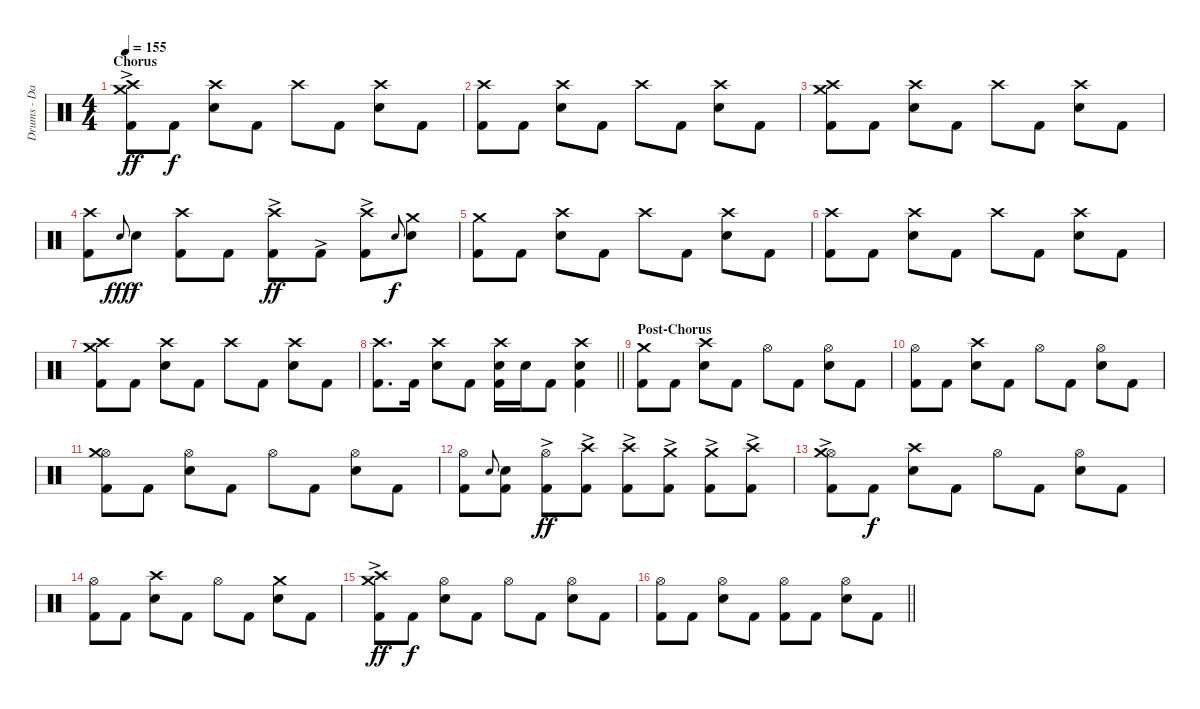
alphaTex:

\track ("Drums - Daniel Adair" "Drums - Da") {instrument percussion bank 1}
\staff {score}
\articulation defaults
\ts (4 4)
\section ("" "Chorus")
\tempo 155
\clef neutral
\ks c
("Crash high (hit)" "Crash medium (hit)"{ac} "Kick (hit) 2").8{dy ff} "Kick (hit) 2".8{dy f} ("Crash high (hit)" "Snare (hit) 2").8 "Kick (hit) 2".8 "Crash high (hit)".8 "Kick (hit) 2".8 ("Crash high (hit)" "Snare (hit) 2").8 "Kick (hit) 2".8 |
("Crash high (hit)" "Kick (hit) 2").8 "Kick (hit) 2".8 ("Crash high (hit)" "Snare (hit) 2").8 "Kick (hit) 2".8 "Crash high (hit)".8 "Kick (hit) 2".8 ("Crash high (hit)" "Snare (hit) 2").8 "Kick (hit) 2".8 |
("Crash high (hit)" "Crash medium (hit)" "Kick (hit) 2").8 "Kick (hit) 2".8 ("Crash high (hit)" "Snare (hit) 2").8 "Kick (hit) 2".8 "Crash high (hit)".8 "Kick (hit) 2".8 ("Crash high (hit)" "Snare (hit) 2").8 "Kick (hit) 2".8 |
("Crash high (hit)" "Kick (hit) 2").8 "Snare (hit) 2".8{gr onbeat dy fff} "Snare (hit) 2".8{dy f} ("Crash high (hit)" "Kick (hit) 2").8 "Kick (hit) 2".8 ("Crash high (hit)" "Kick (hit) 2"{ac}).8{dy ff} "Kick (hit) 2"{ac}.8 ("Crash high (hit)" "Kick (hit) 2"{ac}).8 "Snare (hit) 2".8{gr onbeat dy f} ("Crash medium (hit)" "Snare (hit) 2").8 |
("Crash medium (hit)" "Kick (hit) 2").8 "Kick (hit) 2".8 ("Crash high (hit)" "Snare (hit) 2").8 "Kick (hit) 2".8 "Crash high (hit)".8 "Kick (hit) 2".8 ("Crash high (hit)" "Snare (hit) 2").8 "Kick (hit) 2".8 |
("Crash high (hit)" "Kick (hit) 2").8 "Kick (hit) 2".8 ("Crash high (hit)" "Snare (hit) 2").8 "Kick (hit) 2".8 "Crash high (hit)".8 "Kick (hit) 2".8 ("Crash high (hit)" "Snare (hit) 2").8 "Kick (hit) 2".8 |
("Crash high (hit)" "Crash medium (hit)" "Kick (hit) 2").8 "Kick (hit) 2".8 ("Crash high (hit)" "Snare (hit) 2").8 "Kick (hit) 2".8 "Crash high (hit)".8 "Kick (hit) 2".8 ("Crash high (hit)" "Snare (hit) 2").8 "Kick (hit) 2".8 |
\barLineRight lightlight
("Crash high (hit)" "Kick (hit) 2").8{d} "Kick (hit) 2".16 ("Crash high (hit)" "Snare (hit) 2").8 "Kick (hit) 2".8 ("Crash high (hit)" "Snare (hit) 2" "Kick (hit) 2").16 "Snare (hit) 2".16 "Kick (hit) 2".8 ("Crash high (hit)" "Snare (hit) 2" "Kick (hit) 2").4 |
\section ("" "Post-Chorus")
("Crash medium (hit)" "Kick (hit) 2").8 "Kick (hit) 2".8 ("Crash high (hit)" "Snare (hit) 2").8 "Kick (hit) 2".8 "Hi-Hat (open)".8 "Kick (hit) 2".8 ("Hi-Hat (open)" "Snare (hit) 2").8 "Kick (hit) 2".8 |
("Hi-Hat (open)" "Kick (hit) 2").8 "Kick (hit) 2".8 ("Crash high (hit)" "Snare (hit) 2").8 "Kick (hit) 2".8 "Hi-Hat (open)".8 "Kick (hit) 2".8 ("Hi-Hat (open)" "Snare (hit) 2").8 "Kick (hit) 2".8 |
("Hi-Hat (open)" "Crash medium (hit)" "Kick (hit) 2").8 "Kick (hit) 2".8 ("Hi-Hat (open)" "Snare (hit) 2").8 "Kick (hit) 2".8 "Hi-Hat (open)".8 "Kick (hit) 2".8 ("Hi-Hat (open)" "Snare (hit) 2").8 "Kick (hit) 2".8 |
("Hi-Hat (open)" "Kick (hit) 2").8 "Snare (hit) 2"{h}.8{gr onbeat} ("Snare (hit) 2" "Kick (hit) 2").8 ("Hi-Hat (open)" "Kick (hit) 2"{ac}).8{dy ff} ("Crash high (hit)" "Kick (hit) 2"{ac}).8 ("Crash high (hit)" "Kick (hit) 2"{ac}).8 ("Crash medium (hit)" "Kick (hit) 2"{ac}).8 ("Crash medium (hit)" "Kick (hit) 2"{ac}).8 ("Crash high (hit)" "Kick (hit) 2"{ac}).8 |
("Hi-Hat (open)" "Crash medium (hit)" "Kick (hit) 2"{ac}).8 "Kick (hit) 2".8{dy f} ("Crash high (hit)" "Snare (hit) 2").8 "Kick (hit) 2".8 "Hi-Hat (open)".8 "Kick (hit) 2".8 ("Hi-Hat (open)" "Snare (hit) 2").8 "Kick (hit) 2".8 |
("Hi-Hat (open)" "Kick (hit) 2").8 "Kick (hit) 2".8 ("Crash high (hit)" "Snare (hit) 2").8 "Kick (hit) 2".8 "Hi-Hat (open)".8 "Kick (hit) 2".8 ("Crash medium (hit)" "Snare (hit) 2").8 "Kick (hit) 2".8 |
("Crash high (hit)"{ac} "Crash medium (hit)" "Kick (hit) 2").8{dy ff} "Kick (hit) 2".8{dy f} ("Hi-Hat (open)" "Snare (hit) 2").8 "Kick (hit) 2".8 "Hi-Hat (open)".8 "Kick (hit) 2".8 ("Hi-Hat (open)" "Snare (hit) 2").8 "Kick (hit) 2".8 |
\barLineRight lightlight
("Hi-Hat (open)" "Kick (hit) 2").8 "Kick (hit) 2".8 ("Hi-Hat (open)" "Snare (hit) 2").8 "Kick (hit) 2".8 ("Hi-Hat (open)" "Kick (hit) 2").8 "Kick (hit) 2".8 ("Hi-Hat (open)" "Snare (hit) 2").8 "Kick (hit) 2".8
